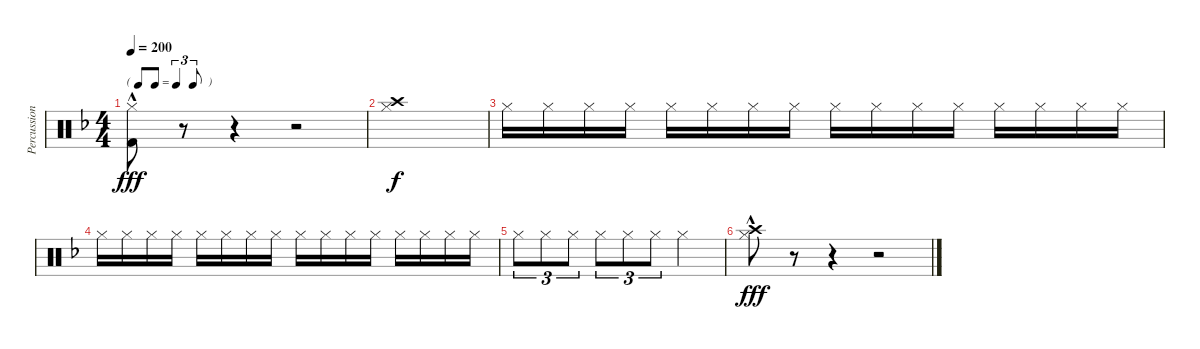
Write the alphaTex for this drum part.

\track ("Percussion" "Percussion") {instrument percussion}
\staff {score}
\articulation defaults
\ts (4 4)
\tf triplet8th
\tempo 200
\clef neutral
\ks f
("Hi-Hat (closed)"{hac} "Kick (hit) 2"{hac}).8{dy fff} r.8 r.4 r.2 |
("Hi-Hat (closed)" "Crash high (hit)").1{dy f} |
"Hi-Hat (closed)".16 "Hi-Hat (closed)".16 "Hi-Hat (closed)".16 "Hi-Hat (closed)".16 "Hi-Hat (closed)".16 "Hi-Hat (closed)".16 "Hi-Hat (closed)".16 "Hi-Hat (closed)".16 "Hi-Hat (closed)".16 "Hi-Hat (closed)".16 "Hi-Hat (closed)".16 "Hi-Hat (closed)".16 "Hi-Hat (closed)".16 "Hi-Hat (closed)".16 "Hi-Hat (closed)".16 "Hi-Hat (closed)".16 |
"Hi-Hat (closed)".16 "Hi-Hat (closed)".16 "Hi-Hat (closed)".16 "Hi-Hat (closed)".16 "Hi-Hat (closed)".16 "Hi-Hat (closed)".16 "Hi-Hat (closed)".16 "Hi-Hat (closed)".16 "Hi-Hat (closed)".16 "Hi-Hat (closed)".16 "Hi-Hat (closed)".16 "Hi-Hat (closed)".16 "Hi-Hat (closed)".16 "Hi-Hat (closed)".16 "Hi-Hat (closed)".16 "Hi-Hat (closed)".16 |
"Hi-Hat (closed)".8{tu (3 2)} "Hi-Hat (closed)".8{tu (3 2)} "Hi-Hat (closed)".8{tu (3 2)} "Hi-Hat (closed)".8{tu (3 2)} "Hi-Hat (closed)".8{tu (3 2)} "Hi-Hat (closed)".8{tu (3 2)} "Hi-Hat (closed)".2 |
("Hi-Hat (closed)"{hac} "Crash high (hit)").8{dy fff} r.8 r.4 r.2
